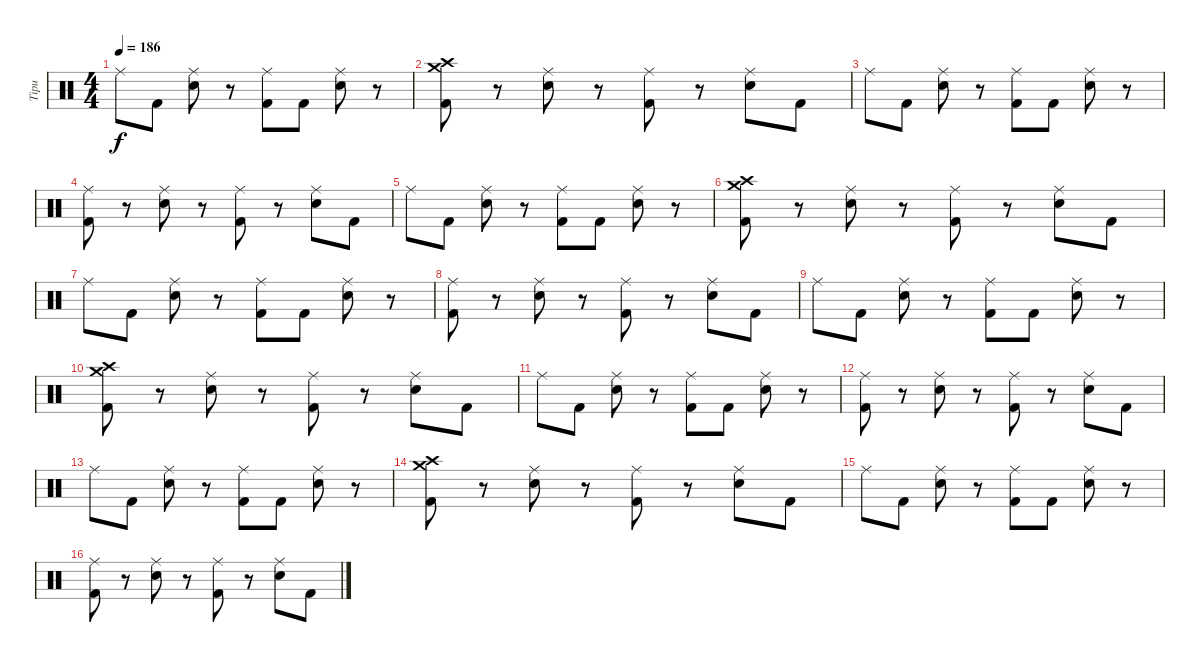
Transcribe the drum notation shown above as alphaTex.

\track ("Tipu" "Tipu") {instrument percussion}
\staff {score}
\articulation defaults
\ts (4 4)
\tempo 186
\clef neutral
\ks c "Ride (middle)".8{dy f} "Kick (hit) 2".8
("Ride (middle)" "Electric Snare (hit)").8 r.8 ("Ride (middle)" "Kick (hit) 2").8 "Kick (hit) 2".8 ("Ride (middle)" "Electric Snare (hit)").8 r.8 |
("Crash high (hit)" "Crash medium (hit)" "Kick (hit) 2").8 r.8 ("Ride (middle)" "Electric Snare (hit)").8 r.8 ("Ride (middle)" "Kick (hit) 2").8 r.8 ("Ride (middle)" "Electric Snare (hit)").8 "Kick (hit) 2".8 |
"Ride (middle)".8 "Kick (hit) 2".8 ("Ride (middle)" "Electric Snare (hit)").8 r.8 ("Ride (middle)" "Kick (hit) 2").8 "Kick (hit) 2".8 ("Ride (middle)" "Electric Snare (hit)").8 r.8 |
("Ride (middle)" "Kick (hit) 2").8 r.8 ("Ride (middle)" "Electric Snare (hit)").8 r.8 ("Ride (middle)" "Kick (hit) 2").8 r.8 ("Ride (middle)" "Electric Snare (hit)").8 "Kick (hit) 2".8 |
"Ride (middle)".8 "Kick (hit) 2".8 ("Ride (middle)" "Electric Snare (hit)").8 r.8 ("Ride (middle)" "Kick (hit) 2").8 "Kick (hit) 2".8 ("Ride (middle)" "Electric Snare (hit)").8 r.8 |
("Crash high (hit)" "Crash medium (hit)" "Kick (hit) 2").8 r.8 ("Ride (middle)" "Electric Snare (hit)").8 r.8 ("Ride (middle)" "Kick (hit) 2").8 r.8 ("Ride (middle)" "Electric Snare (hit)").8 "Kick (hit) 2".8 |
"Ride (middle)".8 "Kick (hit) 2".8 ("Ride (middle)" "Electric Snare (hit)").8 r.8 ("Ride (middle)" "Kick (hit) 2").8 "Kick (hit) 2".8 ("Ride (middle)" "Electric Snare (hit)").8 r.8 |
("Ride (middle)" "Kick (hit) 2").8 r.8 ("Ride (middle)" "Electric Snare (hit)").8 r.8 ("Ride (middle)" "Kick (hit) 2").8 r.8 ("Ride (middle)" "Electric Snare (hit)").8 "Kick (hit) 2".8 |
"Ride (middle)".8 "Kick (hit) 2".8 ("Ride (middle)" "Electric Snare (hit)").8 r.8 ("Ride (middle)" "Kick (hit) 2").8 "Kick (hit) 2".8 ("Ride (middle)" "Electric Snare (hit)").8 r.8 |
("Crash high (hit)" "Crash medium (hit)" "Kick (hit) 2").8 r.8 ("Ride (middle)" "Electric Snare (hit)").8 r.8 ("Ride (middle)" "Kick (hit) 2").8 r.8 ("Ride (middle)" "Electric Snare (hit)").8 "Kick (hit) 2".8 |
"Ride (middle)".8 "Kick (hit) 2".8 ("Ride (middle)" "Electric Snare (hit)").8 r.8 ("Ride (middle)" "Kick (hit) 2").8 "Kick (hit) 2".8 ("Ride (middle)" "Electric Snare (hit)").8 r.8 |
("Ride (middle)" "Kick (hit) 2").8 r.8 ("Ride (middle)" "Electric Snare (hit)").8 r.8 ("Ride (middle)" "Kick (hit) 2").8 r.8 ("Ride (middle)" "Electric Snare (hit)").8 "Kick (hit) 2".8 |
"Ride (middle)".8 "Kick (hit) 2".8 ("Ride (middle)" "Electric Snare (hit)").8 r.8 ("Ride (middle)" "Kick (hit) 2").8 "Kick (hit) 2".8 ("Ride (middle)" "Electric Snare (hit)").8 r.8 |
("Crash high (hit)" "Crash medium (hit)" "Kick (hit) 2").8 r.8 ("Ride (middle)" "Electric Snare (hit)").8 r.8 ("Ride (middle)" "Kick (hit) 2").8 r.8 ("Ride (middle)" "Electric Snare (hit)").8 "Kick (hit) 2".8 |
"Ride (middle)".8 "Kick (hit) 2".8 ("Ride (middle)" "Electric Snare (hit)").8 r.8 ("Ride (middle)" "Kick (hit) 2").8 "Kick (hit) 2".8 ("Ride (middle)" "Electric Snare (hit)").8 r.8 |
("Ride (middle)" "Kick (hit) 2").8 r.8 ("Ride (middle)" "Electric Snare (hit)").8 r.8 ("Ride (middle)" "Kick (hit) 2").8 r.8 ("Ride (middle)" "Electric Snare (hit)").8 "Kick (hit) 2".8
